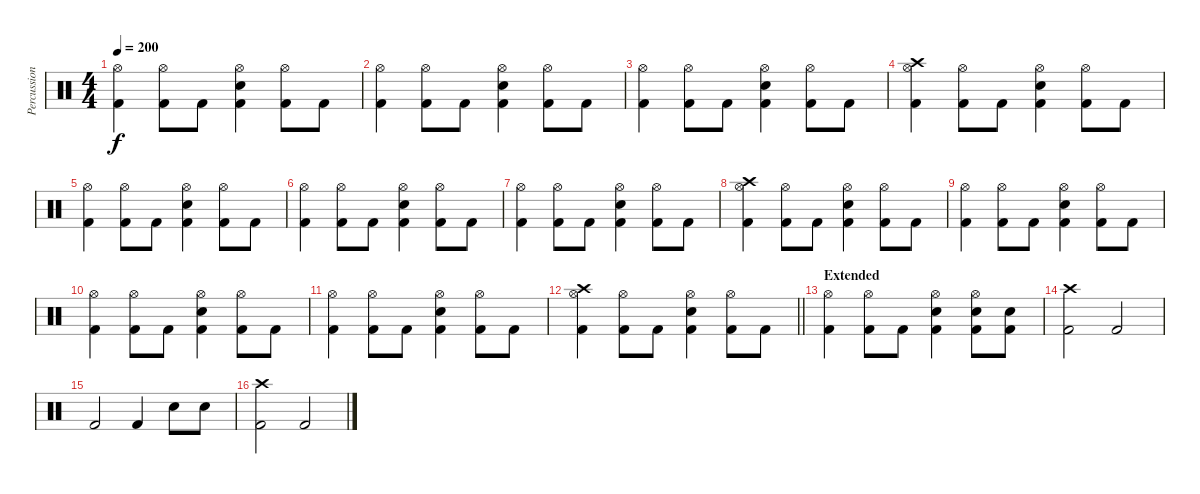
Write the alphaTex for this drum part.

\track ("Percussion" "Percussion") {instrument percussion}
\staff {score}
\articulation defaults
\ts (4 4)
\tempo 200
\clef neutral
\ks c
("Hi-Hat (open)" "Kick (hit) 2").4{dy f} ("Hi-Hat (open)" "Kick (hit) 2").8 "Kick (hit) 2".8 ("Hi-Hat (open)" "Snare (hit) 2" "Kick (hit) 2").4 ("Hi-Hat (open)" "Kick (hit) 2").8 "Kick (hit) 2".8 |
("Hi-Hat (open)" "Kick (hit) 2").4 ("Hi-Hat (open)" "Kick (hit) 2").8 "Kick (hit) 2".8 ("Hi-Hat (open)" "Snare (hit) 2" "Kick (hit) 2").4 ("Hi-Hat (open)" "Kick (hit) 2").8 "Kick (hit) 2".8 |
("Hi-Hat (open)" "Kick (hit) 2").4 ("Hi-Hat (open)" "Kick (hit) 2").8 "Kick (hit) 2".8 ("Hi-Hat (open)" "Snare (hit) 2" "Kick (hit) 2").4 ("Hi-Hat (open)" "Kick (hit) 2").8 "Kick (hit) 2".8 |
("Crash high (hit)" "Hi-Hat (open)" "Kick (hit) 2").4 ("Hi-Hat (open)" "Kick (hit) 2").8 "Kick (hit) 2".8 ("Hi-Hat (open)" "Snare (hit) 2" "Kick (hit) 2").4 ("Hi-Hat (open)" "Kick (hit) 2").8 "Kick (hit) 2".8 |
("Hi-Hat (open)" "Kick (hit) 2").4 ("Hi-Hat (open)" "Kick (hit) 2").8 "Kick (hit) 2".8 ("Hi-Hat (open)" "Snare (hit) 2" "Kick (hit) 2").4 ("Hi-Hat (open)" "Kick (hit) 2").8 "Kick (hit) 2".8 |
("Hi-Hat (open)" "Kick (hit) 2").4 ("Hi-Hat (open)" "Kick (hit) 2").8 "Kick (hit) 2".8 ("Hi-Hat (open)" "Snare (hit) 2" "Kick (hit) 2").4 ("Hi-Hat (open)" "Kick (hit) 2").8 "Kick (hit) 2".8 |
("Hi-Hat (open)" "Kick (hit) 2").4 ("Hi-Hat (open)" "Kick (hit) 2").8 "Kick (hit) 2".8 ("Hi-Hat (open)" "Snare (hit) 2" "Kick (hit) 2").4 ("Hi-Hat (open)" "Kick (hit) 2").8 "Kick (hit) 2".8 |
("Crash high (hit)" "Hi-Hat (open)" "Kick (hit) 2").4 ("Hi-Hat (open)" "Kick (hit) 2").8 "Kick (hit) 2".8 ("Hi-Hat (open)" "Snare (hit) 2" "Kick (hit) 2").4 ("Hi-Hat (open)" "Kick (hit) 2").8 "Kick (hit) 2".8 |
("Hi-Hat (open)" "Kick (hit) 2").4 ("Hi-Hat (open)" "Kick (hit) 2").8 "Kick (hit) 2".8 ("Hi-Hat (open)" "Snare (hit) 2" "Kick (hit) 2").4 ("Hi-Hat (open)" "Kick (hit) 2").8 "Kick (hit) 2".8 |
("Hi-Hat (open)" "Kick (hit) 2").4 ("Hi-Hat (open)" "Kick (hit) 2").8 "Kick (hit) 2".8 ("Hi-Hat (open)" "Snare (hit) 2" "Kick (hit) 2").4 ("Hi-Hat (open)" "Kick (hit) 2").8 "Kick (hit) 2".8 |
("Hi-Hat (open)" "Kick (hit) 2").4 ("Hi-Hat (open)" "Kick (hit) 2").8 "Kick (hit) 2".8 ("Hi-Hat (open)" "Snare (hit) 2" "Kick (hit) 2").4 ("Hi-Hat (open)" "Kick (hit) 2").8 "Kick (hit) 2".8 |
\barLineRight lightlight
("Crash high (hit)" "Hi-Hat (open)" "Kick (hit) 2").4 ("Hi-Hat (open)" "Kick (hit) 2").8 "Kick (hit) 2".8 ("Hi-Hat (open)" "Snare (hit) 2" "Kick (hit) 2").4 ("Hi-Hat (open)" "Kick (hit) 2").8 "Kick (hit) 2".8 |
\section ("" "Extended")
("Hi-Hat (open)" "Kick (hit) 2").4 ("Hi-Hat (open)" "Kick (hit) 2").8 "Kick (hit) 2".8 ("Hi-Hat (open)" "Snare (hit) 2" "Kick (hit) 2").4 ("Hi-Hat (open)" "Snare (hit) 2" "Kick (hit) 2").8 ("Snare (hit) 2" "Kick (hit) 2").8 |
("Crash high (hit)" "Kick (hit) 2").2 "Kick (hit) 2".2 |
"Kick (hit) 2".2 "Kick (hit) 2".4 "Snare (hit) 2".8 "Snare (hit) 2".8 |
("Crash high (hit)" "Kick (hit) 2").2 "Kick (hit) 2".2
